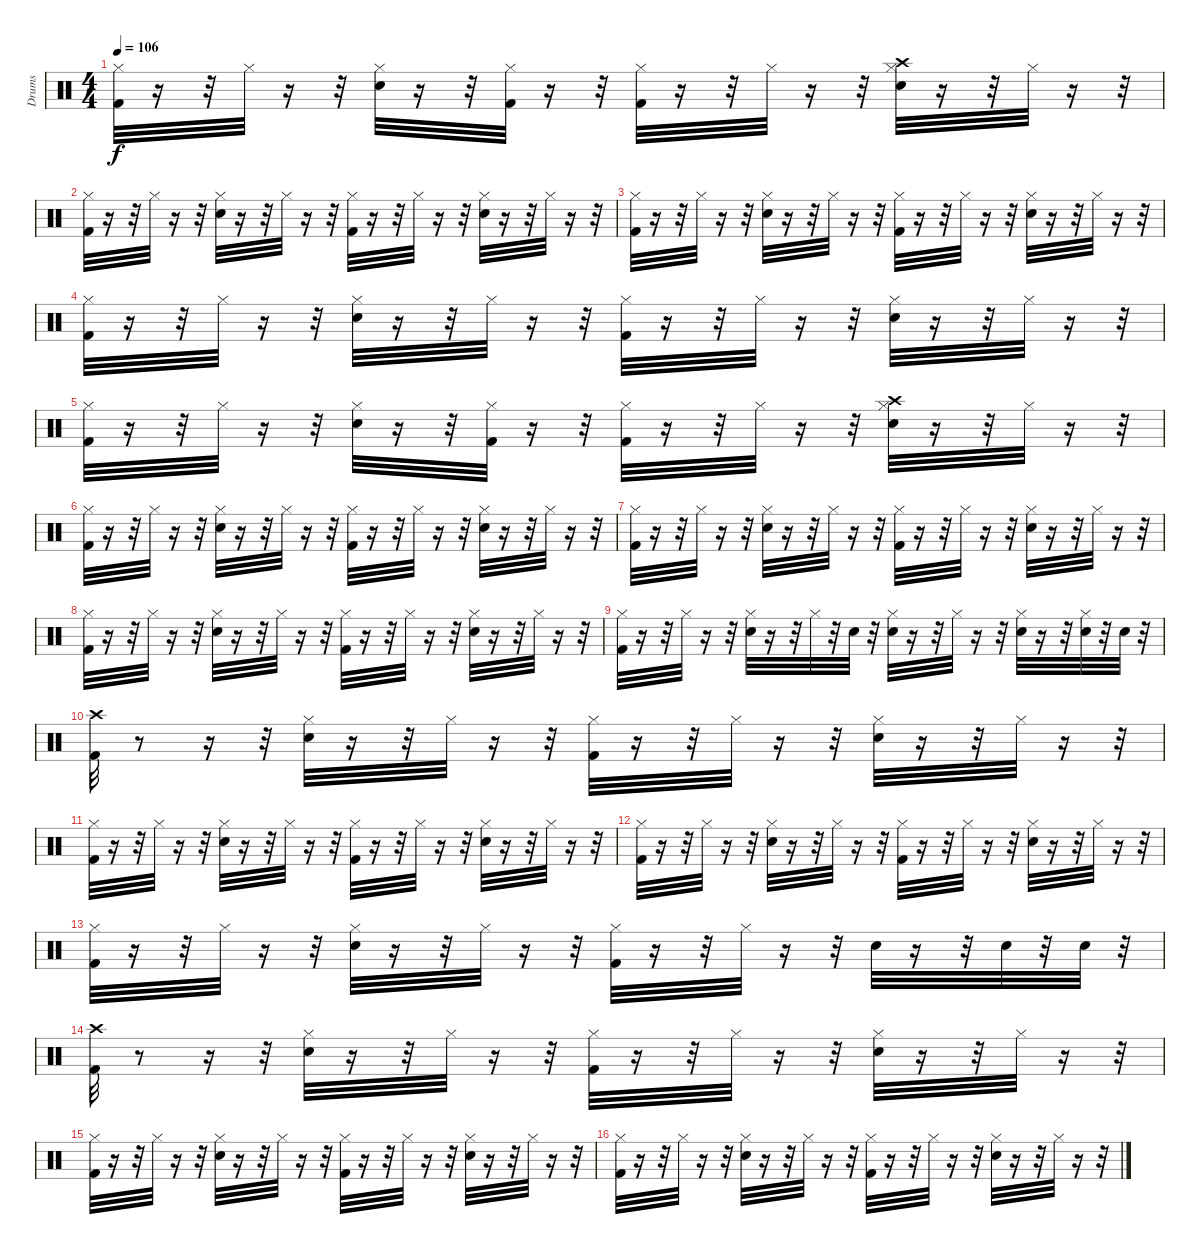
\track ("Drums" "Drums") {instrument percussion}
\staff {score}
\articulation defaults
\ts (4 4)
\tempo 106
\clef neutral
\ks c
("Hi-Hat (closed)" "Kick (hit) 2").32{dy f} r.16 r.32 "Hi-Hat (closed)".32 r.16 r.32 ("Hi-Hat (closed)" "Snare (hit) 2").32 r.16 r.32 ("Hi-Hat (closed)" "Kick (hit) 2").32 r.16 r.32 ("Hi-Hat (closed)" "Kick (hit) 2").32 r.16 r.32 "Hi-Hat (closed)".32 r.16 r.32 ("Crash high (hit)" "Hi-Hat (closed)" "Snare (hit) 2").32 r.16 r.32 "Hi-Hat (closed)".32 r.16 r.32 |
("Kick (hit) 2" "Hi-Hat (closed)").32 r.16 r.32 "Hi-Hat (closed)".32 r.16 r.32 ("Hi-Hat (closed)" "Snare (hit) 2").32 r.16 r.32 "Hi-Hat (closed)".32 r.16 r.32 ("Hi-Hat (closed)" "Kick (hit) 2").32 r.16 r.32 "Hi-Hat (closed)".32 r.16 r.32 ("Hi-Hat (closed)" "Snare (hit) 2").32 r.16 r.32 "Hi-Hat (closed)".32 r.16 r.32 |
("Hi-Hat (closed)" "Kick (hit) 2").32 r.16 r.32 "Hi-Hat (closed)".32 r.16 r.32 ("Hi-Hat (closed)" "Snare (hit) 2").32 r.16 r.32 "Hi-Hat (closed)".32 r.16 r.32 ("Hi-Hat (closed)" "Kick (hit) 2").32 r.16 r.32 "Hi-Hat (closed)".32 r.16 r.32 ("Hi-Hat (closed)" "Snare (hit) 2").32 r.16 r.32 "Hi-Hat (closed)".32 r.16 r.32 |
("Kick (hit) 2" "Hi-Hat (closed)").32 r.16 r.32 "Hi-Hat (closed)".32 r.16 r.32 ("Hi-Hat (closed)" "Snare (hit) 2").32 r.16 r.32 "Hi-Hat (closed)".32 r.16 r.32 ("Hi-Hat (closed)" "Kick (hit) 2").32 r.16 r.32 "Hi-Hat (closed)".32 r.16 r.32 ("Hi-Hat (closed)" "Snare (hit) 2").32 r.16 r.32 "Hi-Hat (closed)".32 r.16 r.32 |
("Hi-Hat (closed)" "Kick (hit) 2").32 r.16 r.32 "Hi-Hat (closed)".32 r.16 r.32 ("Hi-Hat (closed)" "Snare (hit) 2").32 r.16 r.32 ("Hi-Hat (closed)" "Kick (hit) 2").32 r.16 r.32 ("Hi-Hat (closed)" "Kick (hit) 2").32 r.16 r.32 "Hi-Hat (closed)".32 r.16 r.32 ("Crash high (hit)" "Hi-Hat (closed)" "Snare (hit) 2").32 r.16 r.32 "Hi-Hat (closed)".32 r.16 r.32 |
("Kick (hit) 2" "Hi-Hat (closed)").32 r.16 r.32 "Hi-Hat (closed)".32 r.16 r.32 ("Hi-Hat (closed)" "Snare (hit) 2").32 r.16 r.32 "Hi-Hat (closed)".32 r.16 r.32 ("Hi-Hat (closed)" "Kick (hit) 2").32 r.16 r.32 "Hi-Hat (closed)".32 r.16 r.32 ("Hi-Hat (closed)" "Snare (hit) 2").32 r.16 r.32 "Hi-Hat (closed)".32 r.16 r.32 |
("Hi-Hat (closed)" "Kick (hit) 2").32 r.16 r.32 "Hi-Hat (closed)".32 r.16 r.32 ("Hi-Hat (closed)" "Snare (hit) 2").32 r.16 r.32 "Hi-Hat (closed)".32 r.16 r.32 ("Hi-Hat (closed)" "Kick (hit) 2").32 r.16 r.32 "Hi-Hat (closed)".32 r.16 r.32 ("Hi-Hat (closed)" "Snare (hit) 2").32 r.16 r.32 "Hi-Hat (closed)".32 r.16 r.32 |
("Hi-Hat (closed)" "Kick (hit) 2").32 r.16 r.32 "Hi-Hat (closed)".32 r.16 r.32 ("Hi-Hat (closed)" "Snare (hit) 2").32 r.16 r.32 "Hi-Hat (closed)".32 r.16 r.32 ("Hi-Hat (closed)" "Kick (hit) 2").32 r.16 r.32 "Hi-Hat (closed)".32 r.16 r.32 ("Hi-Hat (closed)" "Snare (hit) 2").32 r.16 r.32 "Hi-Hat (closed)".32 r.16 r.32 |
("Hi-Hat (closed)" "Kick (hit) 2").32 r.16 r.32 "Hi-Hat (closed)".32 r.16 r.32 ("Hi-Hat (closed)" "Snare (hit) 2").32 r.16 r.32 "Hi-Hat (closed)".32 r.32 "Snare (hit) 2".32 r.32 ("Hi-Hat (closed)" "Snare (hit) 2").32 r.16 r.32 "Hi-Hat (closed)".32 r.16 r.32 ("Hi-Hat (closed)" "Snare (hit) 2").32 r.16 r.32 ("Hi-Hat (closed)" "Snare (hit) 2").32 r.32 "Snare (hit) 2".32 r.32 |
("Crash high (hit)" "Kick (hit) 2").32 r.8 r.16 r.32 ("Hi-Hat (closed)" "Snare (hit) 2").32 r.16 r.32 "Hi-Hat (closed)".32 r.16 r.32 ("Hi-Hat (closed)" "Kick (hit) 2").32 r.16 r.32 "Hi-Hat (closed)".32 r.16 r.32 ("Hi-Hat (closed)" "Snare (hit) 2").32 r.16 r.32 "Hi-Hat (closed)".32 r.16 r.32 |
("Hi-Hat (closed)" "Kick (hit) 2").32 r.16 r.32 "Hi-Hat (closed)".32 r.16 r.32 ("Hi-Hat (closed)" "Snare (hit) 2").32 r.16 r.32 "Hi-Hat (closed)".32 r.16 r.32 ("Hi-Hat (closed)" "Kick (hit) 2").32 r.16 r.32 "Hi-Hat (closed)".32 r.16 r.32 ("Hi-Hat (closed)" "Snare (hit) 2").32 r.16 r.32 "Hi-Hat (closed)".32 r.16 r.32 |
("Hi-Hat (closed)" "Kick (hit) 2").32 r.16 r.32 "Hi-Hat (closed)".32 r.16 r.32 ("Hi-Hat (closed)" "Snare (hit) 2").32 r.16 r.32 "Hi-Hat (closed)".32 r.16 r.32 ("Hi-Hat (closed)" "Kick (hit) 2").32 r.16 r.32 "Hi-Hat (closed)".32 r.16 r.32 ("Hi-Hat (closed)" "Snare (hit) 2").32 r.16 r.32 "Hi-Hat (closed)".32 r.16 r.32 |
("Hi-Hat (closed)" "Kick (hit) 2").32 r.16 r.32 "Hi-Hat (closed)".32 r.16 r.32 ("Hi-Hat (closed)" "Snare (hit) 2").32 r.16 r.32 "Hi-Hat (closed)".32 r.16 r.32 ("Hi-Hat (closed)" "Kick (hit) 2").32 r.16 r.32 "Hi-Hat (closed)".32 r.16 r.32 "Snare (hit) 2".32 r.16 r.32 "Snare (hit) 2".32 r.32 "Snare (hit) 2".32 r.32 |
("Crash high (hit)" "Kick (hit) 2").32 r.8 r.16 r.32 ("Hi-Hat (closed)" "Snare (hit) 2").32 r.16 r.32 "Hi-Hat (closed)".32 r.16 r.32 ("Hi-Hat (closed)" "Kick (hit) 2").32 r.16 r.32 "Hi-Hat (closed)".32 r.16 r.32 ("Hi-Hat (closed)" "Snare (hit) 2").32 r.16 r.32 "Hi-Hat (closed)".32 r.16 r.32 |
("Hi-Hat (closed)" "Kick (hit) 2").32 r.16 r.32 "Hi-Hat (closed)".32 r.16 r.32 ("Hi-Hat (closed)" "Snare (hit) 2").32 r.16 r.32 "Hi-Hat (closed)".32 r.16 r.32 ("Hi-Hat (closed)" "Kick (hit) 2").32 r.16 r.32 "Hi-Hat (closed)".32 r.16 r.32 ("Hi-Hat (closed)" "Snare (hit) 2").32 r.16 r.32 "Hi-Hat (closed)".32 r.16 r.32 |
("Hi-Hat (closed)" "Kick (hit) 2").32 r.16 r.32 "Hi-Hat (closed)".32 r.16 r.32 ("Hi-Hat (closed)" "Snare (hit) 2").32 r.16 r.32 "Hi-Hat (closed)".32 r.16 r.32 ("Hi-Hat (closed)" "Kick (hit) 2").32 r.16 r.32 "Hi-Hat (closed)".32 r.16 r.32 ("Hi-Hat (closed)" "Snare (hit) 2").32 r.16 r.32 "Hi-Hat (closed)".32 r.16 r.32
